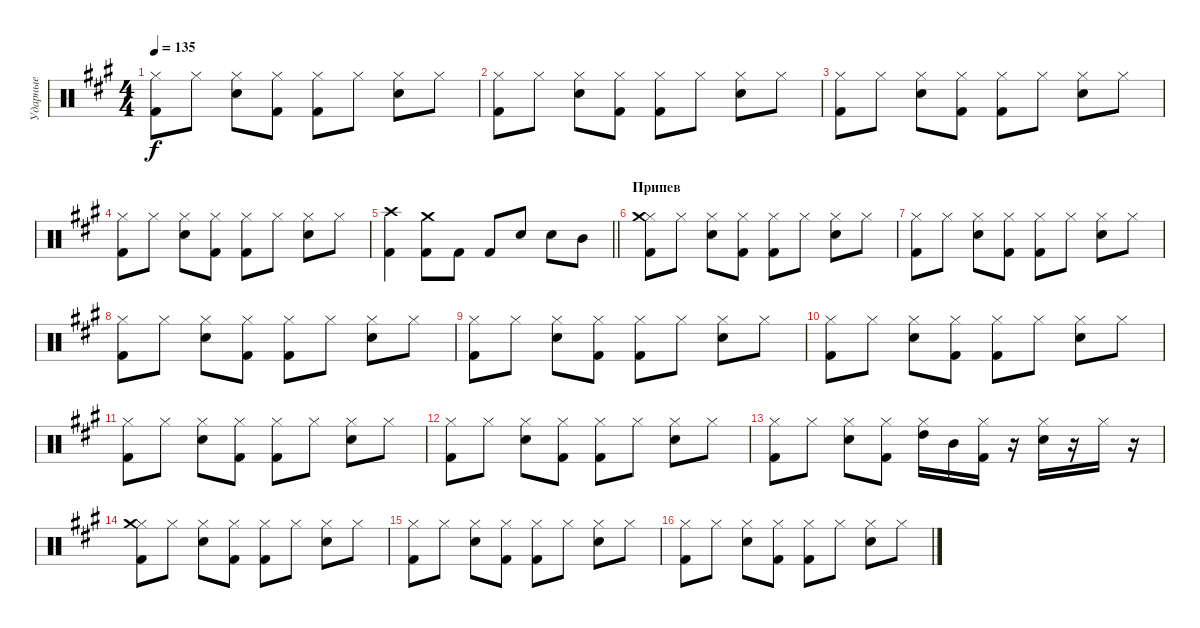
\track ("Ударные" "Ударные") {instrument percussion}
\staff {score}
\articulation defaults
\ts (4 4)
\tempo 135
\clef neutral
\ks f#minor
("Hi-Hat (closed)" "Kick (hit) 2").8{dy f} "Hi-Hat (closed)".8 ("Hi-Hat (closed)" "Electric Snare (hit)").8 ("Hi-Hat (closed)" "Kick (hit) 2").8 ("Hi-Hat (closed)" "Kick (hit) 2").8 "Hi-Hat (closed)".8 ("Hi-Hat (closed)" "Electric Snare (hit)").8 "Hi-Hat (closed)".8 |
("Hi-Hat (closed)" "Kick (hit) 2").8 "Hi-Hat (closed)".8 ("Hi-Hat (closed)" "Electric Snare (hit)").8 ("Hi-Hat (closed)" "Kick (hit) 2").8 ("Hi-Hat (closed)" "Kick (hit) 2").8 "Hi-Hat (closed)".8 ("Hi-Hat (closed)" "Electric Snare (hit)").8 "Hi-Hat (closed)".8 |
("Hi-Hat (closed)" "Kick (hit) 2").8 "Hi-Hat (closed)".8 ("Hi-Hat (closed)" "Electric Snare (hit)").8 ("Hi-Hat (closed)" "Kick (hit) 2").8 ("Hi-Hat (closed)" "Kick (hit) 2").8 "Hi-Hat (closed)".8 ("Hi-Hat (closed)" "Electric Snare (hit)").8 "Hi-Hat (closed)".8 |
("Hi-Hat (closed)" "Kick (hit) 2").8 "Hi-Hat (closed)".8 ("Hi-Hat (closed)" "Electric Snare (hit)").8 ("Hi-Hat (closed)" "Kick (hit) 2").8 ("Hi-Hat (closed)" "Kick (hit) 2").8 "Hi-Hat (closed)".8 ("Hi-Hat (closed)" "Electric Snare (hit)").8 "Hi-Hat (closed)".8 |
\barLineRight lightlight
("Crash high (hit)" "Kick (hit) 2").4 ("Crash medium (hit)" "Kick (hit) 2").8 "Kick (hit) 2".8 "Kick (hit) 2".8 "Electric Snare (hit)".8 "Electric Snare (hit)".8 "Mid Tom (hit)".8 |
\section ("" "Припев")
("Hi-Hat (closed)" "Crash medium (hit)" "Kick (hit) 2").8 "Hi-Hat (closed)".8 ("Hi-Hat (closed)" "Electric Snare (hit)").8 ("Hi-Hat (closed)" "Kick (hit) 2").8 ("Hi-Hat (closed)" "Kick (hit) 2").8 "Hi-Hat (closed)".8 ("Hi-Hat (closed)" "Electric Snare (hit)").8 "Hi-Hat (closed)".8 |
("Hi-Hat (closed)" "Kick (hit) 2").8 "Hi-Hat (closed)".8 ("Hi-Hat (closed)" "Electric Snare (hit)").8 ("Hi-Hat (closed)" "Kick (hit) 2").8 ("Hi-Hat (closed)" "Kick (hit) 2").8 "Hi-Hat (closed)".8 ("Hi-Hat (closed)" "Electric Snare (hit)").8 "Hi-Hat (closed)".8 |
("Hi-Hat (closed)" "Kick (hit) 2").8 "Hi-Hat (closed)".8 ("Hi-Hat (closed)" "Electric Snare (hit)").8 ("Hi-Hat (closed)" "Kick (hit) 2").8 ("Hi-Hat (closed)" "Kick (hit) 2").8 "Hi-Hat (closed)".8 ("Hi-Hat (closed)" "Electric Snare (hit)").8 "Hi-Hat (closed)".8 |
("Hi-Hat (closed)" "Kick (hit) 2").8 "Hi-Hat (closed)".8 ("Hi-Hat (closed)" "Electric Snare (hit)").8 ("Hi-Hat (closed)" "Kick (hit) 2").8 ("Hi-Hat (closed)" "Kick (hit) 2").8 "Hi-Hat (closed)".8 ("Hi-Hat (closed)" "Electric Snare (hit)").8 "Hi-Hat (closed)".8 |
("Hi-Hat (closed)" "Kick (hit) 2").8 "Hi-Hat (closed)".8 ("Hi-Hat (closed)" "Electric Snare (hit)").8 ("Hi-Hat (closed)" "Kick (hit) 2").8 ("Hi-Hat (closed)" "Kick (hit) 2").8 "Hi-Hat (closed)".8 ("Hi-Hat (closed)" "Electric Snare (hit)").8 "Hi-Hat (closed)".8 |
("Hi-Hat (closed)" "Kick (hit) 2").8 "Hi-Hat (closed)".8 ("Hi-Hat (closed)" "Electric Snare (hit)").8 ("Hi-Hat (closed)" "Kick (hit) 2").8 ("Hi-Hat (closed)" "Kick (hit) 2").8 "Hi-Hat (closed)".8 ("Hi-Hat (closed)" "Electric Snare (hit)").8 "Hi-Hat (closed)".8 |
("Hi-Hat (closed)" "Kick (hit) 2").8 "Hi-Hat (closed)".8 ("Hi-Hat (closed)" "Electric Snare (hit)").8 ("Hi-Hat (closed)" "Kick (hit) 2").8 ("Hi-Hat (closed)" "Kick (hit) 2").8 "Hi-Hat (closed)".8 ("Hi-Hat (closed)" "Electric Snare (hit)").8 "Hi-Hat (closed)".8 |
("Hi-Hat (closed)" "Kick (hit) 2").8 "Hi-Hat (closed)".8 ("Hi-Hat (closed)" "Electric Snare (hit)").8 ("Hi-Hat (closed)" "Kick (hit) 2").8 ("Hi-Hat (closed)" "High Tom (hit)").16 "Mid Tom (hit)".16 ("Hi-Hat (closed)" "Kick (hit) 2").16 r.16 ("Hi-Hat (closed)" "Electric Snare (hit)").16 r.16 "Hi-Hat (closed)".16 r.16 |
("Hi-Hat (closed)" "Crash medium (hit)" "Kick (hit) 2").8 "Hi-Hat (closed)".8 ("Hi-Hat (closed)" "Electric Snare (hit)").8 ("Hi-Hat (closed)" "Kick (hit) 2").8 ("Hi-Hat (closed)" "Kick (hit) 2").8 "Hi-Hat (closed)".8 ("Hi-Hat (closed)" "Electric Snare (hit)").8 "Hi-Hat (closed)".8 |
("Hi-Hat (closed)" "Kick (hit) 2").8 "Hi-Hat (closed)".8 ("Hi-Hat (closed)" "Electric Snare (hit)").8 ("Hi-Hat (closed)" "Kick (hit) 2").8 ("Hi-Hat (closed)" "Kick (hit) 2").8 "Hi-Hat (closed)".8 ("Hi-Hat (closed)" "Electric Snare (hit)").8 "Hi-Hat (closed)".8 |
("Hi-Hat (closed)" "Kick (hit) 2").8 "Hi-Hat (closed)".8 ("Hi-Hat (closed)" "Electric Snare (hit)").8 ("Hi-Hat (closed)" "Kick (hit) 2").8 ("Hi-Hat (closed)" "Kick (hit) 2").8 "Hi-Hat (closed)".8 ("Hi-Hat (closed)" "Electric Snare (hit)").8 "Hi-Hat (closed)".8
